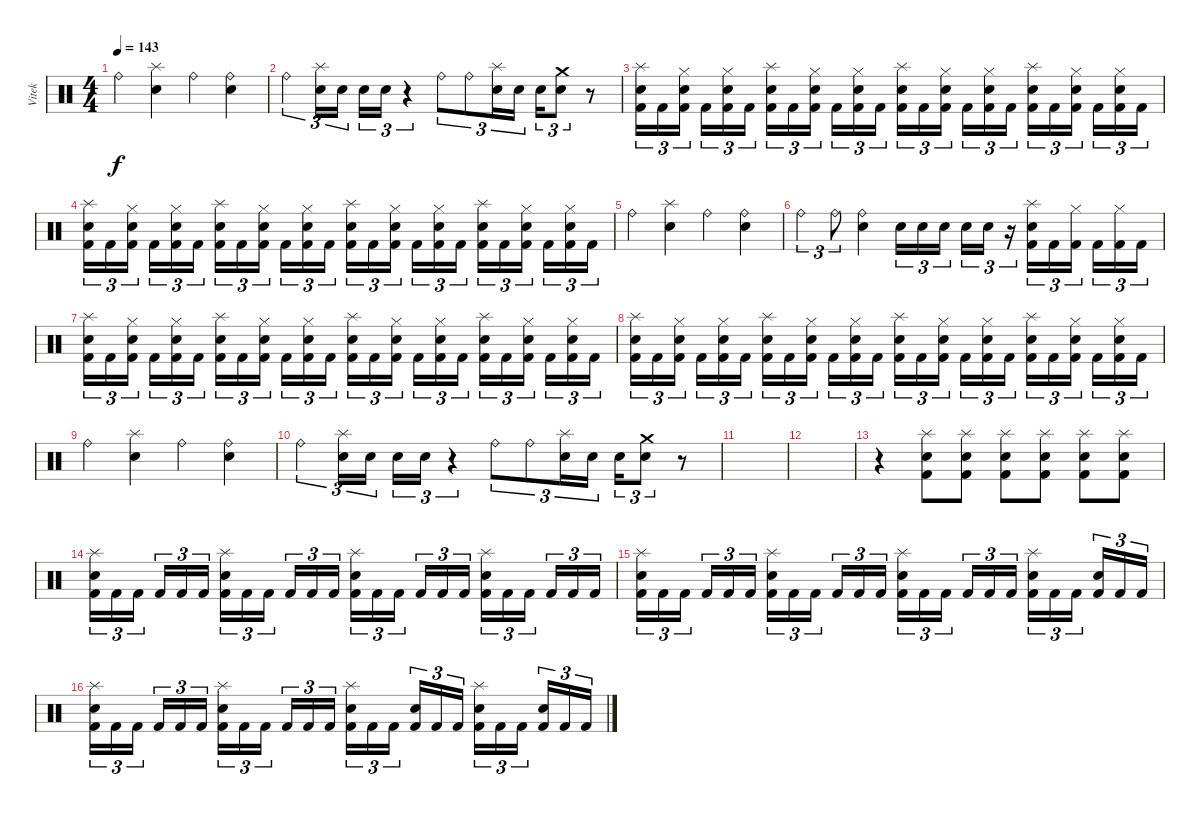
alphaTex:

\track ("Vitek" "Vitek") {instrument percussion}
\staff {score}
\articulation defaults
\ts (4 4)
\tempo 143
\clef neutral
\ks c "Ride (bell)".4{dy f}
("Splash (hit)" "Electric Snare (hit)").4 "Ride (bell)".4 ("Ride (bell)" "Electric Snare (hit)").4 |
"Ride (bell)".4{tu (3 2)} ("Splash (hit)" "Electric Snare (hit)").16{tu (3 2)} "Electric Snare (hit)".16{tu (3 2)} "Electric Snare (hit)".16{tu (3 2)} "Electric Snare (hit)".16{tu (3 2)} r.4{tu (3 2)} "Ride (bell)".8{tu (3 2)} "Ride (bell)".8{tu (3 2)} ("Splash (hit)" "Electric Snare (hit)").16{tu (3 2)} "Electric Snare (hit)".16{tu (3 2)} "Electric Snare (hit)".16{tu (3 2)} ("Crash medium (hit)" "Electric Snare (hit)").8{tu (3 2)} r.8 |
("Splash (hit)" "Electric Snare (hit)" "Kick (hit) 2").16{tu (3 2)} "Kick (hit) 2".16{tu (3 2)} ("Hi-Hat (closed)" "Electric Snare (hit)" "Kick (hit) 2").16{tu (3 2) beam splitsecondary} "Kick (hit) 2".16{tu (3 2)} ("Hi-Hat (closed)" "Electric Snare (hit)" "Kick (hit) 2").16{tu (3 2)} "Kick (hit) 2".16{tu (3 2)} ("Splash (hit)" "Electric Snare (hit)" "Kick (hit) 2").16{tu (3 2)} "Kick (hit) 2".16{tu (3 2)} ("Hi-Hat (closed)" "Electric Snare (hit)" "Kick (hit) 2").16{tu (3 2) beam splitsecondary} "Kick (hit) 2".16{tu (3 2)} ("Hi-Hat (closed)" "Electric Snare (hit)" "Kick (hit) 2").16{tu (3 2)} "Kick (hit) 2".16{tu (3 2)} ("Splash (hit)" "Electric Snare (hit)" "Kick (hit) 2").16{tu (3 2)} "Kick (hit) 2".16{tu (3 2)} ("Hi-Hat (closed)" "Electric Snare (hit)" "Kick (hit) 2").16{tu (3 2) beam splitsecondary} "Kick (hit) 2".16{tu (3 2)} ("Hi-Hat (closed)" "Electric Snare (hit)" "Kick (hit) 2").16{tu (3 2)} "Kick (hit) 2".16{tu (3 2)} ("Splash (hit)" "Electric Snare (hit)" "Kick (hit) 2").16{tu (3 2)} "Kick (hit) 2".16{tu (3 2)} ("Hi-Hat (closed)" "Electric Snare (hit)" "Kick (hit) 2").16{tu (3 2) beam splitsecondary} "Kick (hit) 2".16{tu (3 2)} ("Hi-Hat (closed)" "Electric Snare (hit)" "Kick (hit) 2").16{tu (3 2)} "Kick (hit) 2".16{tu (3 2)} |
("Splash (hit)" "Electric Snare (hit)" "Kick (hit) 2").16{tu (3 2)} "Kick (hit) 2".16{tu (3 2)} ("Hi-Hat (closed)" "Electric Snare (hit)" "Kick (hit) 2").16{tu (3 2) beam splitsecondary} "Kick (hit) 2".16{tu (3 2)} ("Hi-Hat (closed)" "Electric Snare (hit)" "Kick (hit) 2").16{tu (3 2)} "Kick (hit) 2".16{tu (3 2)} ("Splash (hit)" "Electric Snare (hit)" "Kick (hit) 2").16{tu (3 2)} "Kick (hit) 2".16{tu (3 2)} ("Hi-Hat (closed)" "Electric Snare (hit)" "Kick (hit) 2").16{tu (3 2) beam splitsecondary} "Kick (hit) 2".16{tu (3 2)} ("Hi-Hat (closed)" "Electric Snare (hit)" "Kick (hit) 2").16{tu (3 2)} "Kick (hit) 2".16{tu (3 2)} ("Splash (hit)" "Electric Snare (hit)" "Kick (hit) 2").16{tu (3 2)} "Kick (hit) 2".16{tu (3 2)} ("Hi-Hat (closed)" "Electric Snare (hit)" "Kick (hit) 2").16{tu (3 2) beam splitsecondary} "Kick (hit) 2".16{tu (3 2)} ("Hi-Hat (closed)" "Electric Snare (hit)" "Kick (hit) 2").16{tu (3 2)} "Kick (hit) 2".16{tu (3 2)} ("Splash (hit)" "Electric Snare (hit)" "Kick (hit) 2").16{tu (3 2)} "Kick (hit) 2".16{tu (3 2)} ("Hi-Hat (closed)" "Electric Snare (hit)" "Kick (hit) 2").16{tu (3 2) beam splitsecondary} "Kick (hit) 2".16{tu (3 2)} ("Hi-Hat (closed)" "Electric Snare (hit)" "Kick (hit) 2").16{tu (3 2)} "Kick (hit) 2".16{tu (3 2)} |
"Ride (bell)".4 ("Splash (hit)" "Electric Snare (hit)").4 "Ride (bell)".4 ("Ride (bell)" "Electric Snare (hit)").4 |
"Ride (bell)".4{tu (3 2)} "Ride (bell)".8{tu (3 2)} ("Ride (bell)" "Electric Snare (hit)").4 "Electric Snare (hit)".16{tu (3 2)} "Electric Snare (hit)".16{tu (3 2)} "Electric Snare (hit)".16{tu (3 2) beam splitsecondary} "Electric Snare (hit)".16{tu (3 2)} "Electric Snare (hit)".16{tu (3 2)} r.16{tu (3 2)} ("Splash (hit)" "Electric Snare (hit)" "Kick (hit) 2").16{tu (3 2)} "Kick (hit) 2".16{tu (3 2)} ("Hi-Hat (closed)" "Kick (hit) 2").16{tu (3 2) beam splitsecondary} "Kick (hit) 2".16{tu (3 2)} ("Hi-Hat (closed)" "Kick (hit) 2").16{tu (3 2)} "Kick (hit) 2".16{tu (3 2)} |
("Splash (hit)" "Electric Snare (hit)" "Kick (hit) 2").16{tu (3 2)} "Kick (hit) 2".16{tu (3 2)} ("Hi-Hat (closed)" "Electric Snare (hit)" "Kick (hit) 2").16{tu (3 2) beam splitsecondary} "Kick (hit) 2".16{tu (3 2)} ("Hi-Hat (closed)" "Electric Snare (hit)" "Kick (hit) 2").16{tu (3 2)} "Kick (hit) 2".16{tu (3 2)} ("Splash (hit)" "Electric Snare (hit)" "Kick (hit) 2").16{tu (3 2)} "Kick (hit) 2".16{tu (3 2)} ("Hi-Hat (closed)" "Electric Snare (hit)" "Kick (hit) 2").16{tu (3 2) beam splitsecondary} "Kick (hit) 2".16{tu (3 2)} ("Hi-Hat (closed)" "Electric Snare (hit)" "Kick (hit) 2").16{tu (3 2)} "Kick (hit) 2".16{tu (3 2)} ("Splash (hit)" "Electric Snare (hit)" "Kick (hit) 2").16{tu (3 2)} "Kick (hit) 2".16{tu (3 2)} ("Hi-Hat (closed)" "Electric Snare (hit)" "Kick (hit) 2").16{tu (3 2) beam splitsecondary} "Kick (hit) 2".16{tu (3 2)} ("Hi-Hat (closed)" "Electric Snare (hit)" "Kick (hit) 2").16{tu (3 2)} "Kick (hit) 2".16{tu (3 2)} ("Splash (hit)" "Electric Snare (hit)" "Kick (hit) 2").16{tu (3 2)} "Kick (hit) 2".16{tu (3 2)} ("Hi-Hat (closed)" "Electric Snare (hit)" "Kick (hit) 2").16{tu (3 2) beam splitsecondary} "Kick (hit) 2".16{tu (3 2)} ("Hi-Hat (closed)" "Electric Snare (hit)" "Kick (hit) 2").16{tu (3 2)} "Kick (hit) 2".16{tu (3 2)} |
("Splash (hit)" "Electric Snare (hit)" "Kick (hit) 2").16{tu (3 2)} "Kick (hit) 2".16{tu (3 2)} ("Hi-Hat (closed)" "Electric Snare (hit)" "Kick (hit) 2").16{tu (3 2) beam splitsecondary} "Kick (hit) 2".16{tu (3 2)} ("Hi-Hat (closed)" "Electric Snare (hit)" "Kick (hit) 2").16{tu (3 2)} "Kick (hit) 2".16{tu (3 2)} ("Splash (hit)" "Electric Snare (hit)" "Kick (hit) 2").16{tu (3 2)} "Kick (hit) 2".16{tu (3 2)} ("Hi-Hat (closed)" "Electric Snare (hit)" "Kick (hit) 2").16{tu (3 2) beam splitsecondary} "Kick (hit) 2".16{tu (3 2)} ("Hi-Hat (closed)" "Electric Snare (hit)" "Kick (hit) 2").16{tu (3 2)} "Kick (hit) 2".16{tu (3 2)} ("Splash (hit)" "Electric Snare (hit)" "Kick (hit) 2").16{tu (3 2)} "Kick (hit) 2".16{tu (3 2)} ("Hi-Hat (closed)" "Electric Snare (hit)" "Kick (hit) 2").16{tu (3 2) beam splitsecondary} "Kick (hit) 2".16{tu (3 2)} ("Hi-Hat (closed)" "Electric Snare (hit)" "Kick (hit) 2").16{tu (3 2)} "Kick (hit) 2".16{tu (3 2)} ("Splash (hit)" "Electric Snare (hit)" "Kick (hit) 2").16{tu (3 2)} "Kick (hit) 2".16{tu (3 2)} ("Hi-Hat (closed)" "Electric Snare (hit)" "Kick (hit) 2").16{tu (3 2) beam splitsecondary} "Kick (hit) 2".16{tu (3 2)} ("Hi-Hat (closed)" "Electric Snare (hit)" "Kick (hit) 2").16{tu (3 2)} "Kick (hit) 2".16{tu (3 2)} |
"Ride (bell)".4 ("Splash (hit)" "Electric Snare (hit)").4 "Ride (bell)".4 ("Ride (bell)" "Electric Snare (hit)").4 |
"Ride (bell)".4{tu (3 2)} ("Splash (hit)" "Electric Snare (hit)").16{tu (3 2)} "Electric Snare (hit)".16{tu (3 2)} "Electric Snare (hit)".16{tu (3 2)} "Electric Snare (hit)".16{tu (3 2)} r.4{tu (3 2)} "Ride (bell)".8{tu (3 2)} "Ride (bell)".8{tu (3 2)} ("Splash (hit)" "Electric Snare (hit)").16{tu (3 2)} "Electric Snare (hit)".16{tu (3 2)} "Electric Snare (hit)".16{tu (3 2)} ("Crash medium (hit)" "Electric Snare (hit)").8{tu (3 2)} r.8 |
|
|
r.4 ("Splash (hit)" "Electric Snare (hit)" "Kick (hit) 2").8 ("Splash (hit)" "Electric Snare (hit)" "Kick (hit) 2").8 ("Splash (hit)" "Electric Snare (hit)" "Kick (hit) 2").8 ("Splash (hit)" "Electric Snare (hit)" "Kick (hit) 2").8 ("Splash (hit)" "Electric Snare (hit)" "Kick (hit) 2").8 ("Splash (hit)" "Electric Snare (hit)" "Kick (hit) 2").8 |
("Splash (hit)" "Electric Snare (hit)" "Kick (hit) 2").16{tu (3 2)} "Kick (hit) 2".16{tu (3 2)} "Kick (hit) 2".16{tu (3 2) beam splitsecondary} "Kick (hit) 2".16{tu (3 2)} "Kick (hit) 2".16{tu (3 2)} "Kick (hit) 2".16{tu (3 2)} ("Splash (hit)" "Electric Snare (hit)" "Kick (hit) 2").16{tu (3 2)} "Kick (hit) 2".16{tu (3 2)} "Kick (hit) 2".16{tu (3 2) beam splitsecondary} "Kick (hit) 2".16{tu (3 2)} "Kick (hit) 2".16{tu (3 2)} "Kick (hit) 2".16{tu (3 2)} ("Splash (hit)" "Electric Snare (hit)" "Kick (hit) 2").16{tu (3 2)} "Kick (hit) 2".16{tu (3 2)} "Kick (hit) 2".16{tu (3 2) beam splitsecondary} "Kick (hit) 2".16{tu (3 2)} "Kick (hit) 2".16{tu (3 2)} "Kick (hit) 2".16{tu (3 2)} ("Splash (hit)" "Electric Snare (hit)" "Kick (hit) 2").16{tu (3 2)} "Kick (hit) 2".16{tu (3 2)} "Kick (hit) 2".16{tu (3 2) beam splitsecondary} "Kick (hit) 2".16{tu (3 2)} "Kick (hit) 2".16{tu (3 2)} "Kick (hit) 2".16{tu (3 2)} |
("Splash (hit)" "Electric Snare (hit)" "Kick (hit) 2").16{tu (3 2)} "Kick (hit) 2".16{tu (3 2)} "Kick (hit) 2".16{tu (3 2) beam splitsecondary} "Kick (hit) 2".16{tu (3 2)} "Kick (hit) 2".16{tu (3 2)} "Kick (hit) 2".16{tu (3 2)} ("Splash (hit)" "Electric Snare (hit)" "Kick (hit) 2").16{tu (3 2)} "Kick (hit) 2".16{tu (3 2)} "Kick (hit) 2".16{tu (3 2) beam splitsecondary} "Kick (hit) 2".16{tu (3 2)} "Kick (hit) 2".16{tu (3 2)} "Kick (hit) 2".16{tu (3 2)} ("Splash (hit)" "Electric Snare (hit)" "Kick (hit) 2").16{tu (3 2)} "Kick (hit) 2".16{tu (3 2)} "Kick (hit) 2".16{tu (3 2) beam splitsecondary} "Kick (hit) 2".16{tu (3 2)} "Kick (hit) 2".16{tu (3 2)} "Kick (hit) 2".16{tu (3 2)} ("Splash (hit)" "Electric Snare (hit)" "Kick (hit) 2").16{tu (3 2)} "Kick (hit) 2".16{tu (3 2)} "Kick (hit) 2".16{tu (3 2) beam splitsecondary} ("Electric Snare (hit)" "Kick (hit) 2").16{tu (3 2)} "Kick (hit) 2".16{tu (3 2)} "Kick (hit) 2".16{tu (3 2)} |
("Splash (hit)" "Electric Snare (hit)" "Kick (hit) 2").16{tu (3 2)} "Kick (hit) 2".16{tu (3 2)} "Kick (hit) 2".16{tu (3 2) beam splitsecondary} "Kick (hit) 2".16{tu (3 2)} "Kick (hit) 2".16{tu (3 2)} "Kick (hit) 2".16{tu (3 2)} ("Splash (hit)" "Electric Snare (hit)" "Kick (hit) 2").16{tu (3 2)} "Kick (hit) 2".16{tu (3 2)} "Kick (hit) 2".16{tu (3 2) beam splitsecondary} "Kick (hit) 2".16{tu (3 2)} "Kick (hit) 2".16{tu (3 2)} "Kick (hit) 2".16{tu (3 2)} ("Splash (hit)" "Electric Snare (hit)" "Kick (hit) 2").16{tu (3 2)} "Kick (hit) 2".16{tu (3 2)} "Kick (hit) 2".16{tu (3 2) beam splitsecondary} ("Electric Snare (hit)" "Kick (hit) 2").16{tu (3 2)} "Kick (hit) 2".16{tu (3 2)} "Kick (hit) 2".16{tu (3 2)} ("Splash (hit)" "Electric Snare (hit)" "Kick (hit) 2").16{tu (3 2)} "Kick (hit) 2".16{tu (3 2)} "Kick (hit) 2".16{tu (3 2) beam splitsecondary} ("Electric Snare (hit)" "Kick (hit) 2").16{tu (3 2)} "Kick (hit) 2".16{tu (3 2)} "Kick (hit) 2".16{tu (3 2)}
